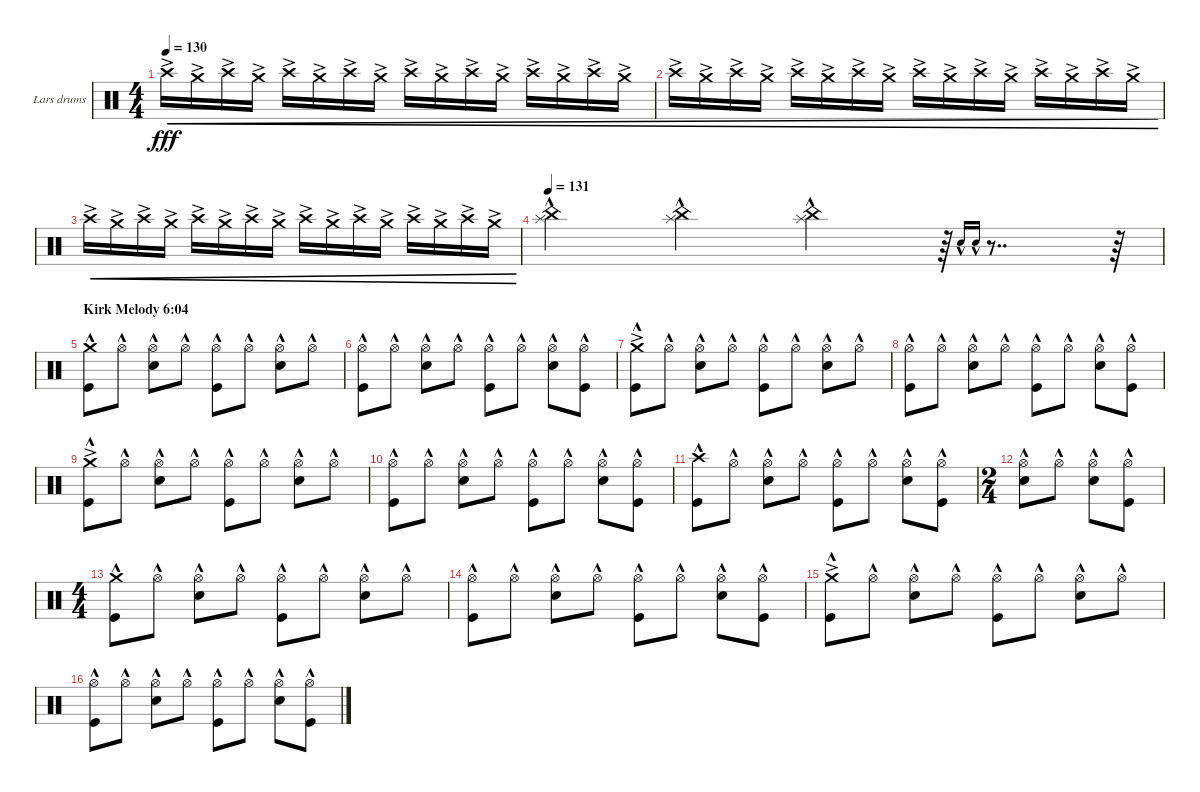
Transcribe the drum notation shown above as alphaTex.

\defaultSystemsLayout 4
\bracketExtendMode groupsimilarinstruments
\firstSystemTrackNameOrientation horizontal
\otherSystemsTrackNameOrientation horizontal
\track ("Lars drums" "Lars drums") {instrument percussion}
\staff {score}
\articulation defaults
\ts (4 4)
\tempo 130
\clef neutral
\ks c "Crash high (hit)"{ac}.16{cre dy fff} "Crash medium (hit)"{ac}.16{cre} "Crash high (hit)"{ac}.16{cre} "Crash medium (hit)"{ac}.16{cre} "Crash high (hit)"{ac}.16{cre} "Crash medium (hit)"{ac}.16{cre} "Crash high (hit)"{ac}.16{cre} "Crash medium (hit)"{ac}.16{cre} "Crash high (hit)"{ac}.16{cre} "Crash medium (hit)"{ac}.16{cre} "Crash high (hit)"{ac}.16{cre} "Crash medium (hit)"{ac}.16{cre} "Crash high (hit)"{ac}.16{cre} "Crash medium (hit)"{ac}.16{cre} "Crash high (hit)"{ac}.16{cre} "Crash medium (hit)"{ac}.16{cre}
|
"Crash high (hit)"{ac}.16{cre} "Crash medium (hit)"{ac}.16{cre} "Crash high (hit)"{ac}.16{cre} "Crash medium (hit)"{ac}.16{cre} "Crash high (hit)"{ac}.16{cre} "Crash medium (hit)"{ac}.16{cre} "Crash high (hit)"{ac}.16{cre} "Crash medium (hit)"{ac}.16{cre} "Crash high (hit)"{ac}.16{cre} "Crash medium (hit)"{ac}.16{cre} "Crash high (hit)"{ac}.16{cre} "Crash medium (hit)"{ac}.16{cre} "Crash high (hit)"{ac}.16{cre} "Crash medium (hit)"{ac}.16{cre} "Crash high (hit)"{ac}.16{cre} "Crash medium (hit)"{ac}.16{cre} |
"Crash high (hit)"{ac}.16{cre} "Crash medium (hit)"{ac}.16{cre} "Crash high (hit)"{ac}.16{cre} "Crash medium (hit)"{ac}.16{cre} "Crash high (hit)"{ac}.16{cre} "Crash medium (hit)"{ac}.16{cre} "Crash high (hit)"{ac}.16{cre} "Crash medium (hit)"{ac}.16{cre} "Crash high (hit)"{ac}.16{cre} "Crash medium (hit)"{ac}.16{cre} "Crash high (hit)"{ac}.16{cre} "Crash medium (hit)"{ac}.16{cre} "Crash high (hit)"{ac}.16{cre} "Crash medium (hit)"{ac}.16{cre} "Crash high (hit)"{ac}.16{cre} "Crash medium (hit)"{ac}.16{cre} |
\tempo 131
("Splash (hit)"{hac} "China (hit)"{hac}).4 ("Splash (hit)"{hac} "China (hit)"{hac}).4 ("Splash (hit)"{hac} "China (hit)"{hac}).4 r.64 "Snare (hit) 2"{hac}.16{gr onbeat} "Snare (hit) 2"{hac}.16{gr onbeat} r.8{dd} r.64 |
\section ("" "Kirk Melody 6:04")
("Crash medium (hit)"{hac} "Kick (hit)"{hac}).8 "Hi-Hat (open)"{hac}.8 ("Hi-Hat (open)"{hac} "Snare (hit) 2"{hac}).8 "Hi-Hat (open)"{hac}.8 ("Hi-Hat (open)"{hac} "Kick (hit)"{hac}).8 "Hi-Hat (open)"{hac}.8 ("Hi-Hat (open)"{hac} "Snare (hit) 2"{hac}).8 "Hi-Hat (open)"{hac}.8 |
("Hi-Hat (open)"{hac} "Kick (hit)"{hac}).8 "Hi-Hat (open)"{hac}.8 ("Hi-Hat (open)"{hac} "Snare (hit) 2"{hac}).8 "Hi-Hat (open)"{hac}.8 ("Hi-Hat (open)"{hac} "Kick (hit)"{hac}).8 "Hi-Hat (open)"{hac}.8 ("Hi-Hat (open)"{hac} "Snare (hit) 2"{hac}).8 ("Hi-Hat (open)"{hac} "Kick (hit)"{hac}).8 |
("Crash medium (hit)"{ac} "Kick (hit)"{hac}).8 "Hi-Hat (open)"{hac}.8 ("Hi-Hat (open)"{hac} "Snare (hit) 2"{hac}).8 "Hi-Hat (open)"{hac}.8 ("Hi-Hat (open)"{hac} "Kick (hit)"{hac}).8 "Hi-Hat (open)"{hac}.8 ("Hi-Hat (open)"{hac} "Snare (hit) 2"{hac}).8 "Hi-Hat (open)"{hac}.8 |
("Hi-Hat (open)"{hac} "Kick (hit)"{hac}).8 "Hi-Hat (open)"{hac}.8 ("Hi-Hat (open)"{hac} "Snare (hit) 2"{hac}).8 "Hi-Hat (open)"{hac}.8 ("Hi-Hat (open)"{hac} "Kick (hit)"{hac}).8 "Hi-Hat (open)"{hac}.8 ("Hi-Hat (open)"{hac} "Snare (hit) 2"{hac}).8 ("Hi-Hat (open)"{hac} "Kick (hit)"{hac}).8 |
("Crash medium (hit)"{ac} "Kick (hit)"{hac}).8 "Hi-Hat (open)"{hac}.8 ("Hi-Hat (open)"{hac} "Snare (hit) 2"{hac}).8 "Hi-Hat (open)"{hac}.8 ("Hi-Hat (open)"{hac} "Kick (hit)"{hac}).8 "Hi-Hat (open)"{hac}.8 ("Hi-Hat (open)"{hac} "Snare (hit) 2"{hac}).8 "Hi-Hat (open)"{hac}.8 |
("Hi-Hat (open)"{hac} "Kick (hit)"{hac}).8 "Hi-Hat (open)"{hac}.8 ("Hi-Hat (open)"{hac} "Snare (hit) 2"{hac}).8 "Hi-Hat (open)"{hac}.8 ("Hi-Hat (open)"{hac} "Kick (hit)"{hac}).8 "Hi-Hat (open)"{hac}.8 ("Hi-Hat (open)"{hac} "Snare (hit) 2"{hac}).8 ("Hi-Hat (open)"{hac} "Kick (hit)"{hac}).8 |
("Crash high (hit)"{hac} "Kick (hit)"{hac}).8 "Hi-Hat (open)"{hac}.8 ("Hi-Hat (open)"{hac} "Snare (hit) 2"{hac}).8 "Hi-Hat (open)"{hac}.8 ("Hi-Hat (open)"{hac} "Kick (hit)"{hac}).8 "Hi-Hat (open)"{hac}.8 ("Hi-Hat (open)"{hac} "Snare (hit) 2"{hac}).8 ("Hi-Hat (open)"{hac} "Kick (hit)"{hac}).8 |
\ts (2 4)
("Hi-Hat (open)"{hac} "Snare (hit) 2"{hac}).8 "Hi-Hat (open)"{hac}.8 ("Hi-Hat (open)"{hac} "Snare (hit) 2"{hac}).8 ("Hi-Hat (open)"{hac} "Kick (hit)"{hac}).8 |
\ts (4 4)
("Crash medium (hit)"{hac} "Kick (hit)"{hac}).8 "Hi-Hat (open)"{hac}.8 ("Hi-Hat (open)"{hac} "Snare (hit) 2"{hac}).8 "Hi-Hat (open)"{hac}.8 ("Hi-Hat (open)"{hac} "Kick (hit)"{hac}).8 "Hi-Hat (open)"{hac}.8 ("Hi-Hat (open)"{hac} "Snare (hit) 2"{hac}).8 "Hi-Hat (open)"{hac}.8 |
("Hi-Hat (open)"{hac} "Kick (hit)"{hac}).8 "Hi-Hat (open)"{hac}.8 ("Hi-Hat (open)"{hac} "Snare (hit) 2"{hac}).8 "Hi-Hat (open)"{hac}.8 ("Hi-Hat (open)"{hac} "Kick (hit)"{hac}).8 "Hi-Hat (open)"{hac}.8 ("Hi-Hat (open)"{hac} "Snare (hit) 2"{hac}).8 ("Hi-Hat (open)"{hac} "Kick (hit)"{hac}).8 |
("Crash medium (hit)"{ac} "Kick (hit)"{hac}).8 "Hi-Hat (open)"{hac}.8 ("Hi-Hat (open)"{hac} "Snare (hit) 2"{hac}).8 "Hi-Hat (open)"{hac}.8 ("Hi-Hat (open)"{hac} "Kick (hit)"{hac}).8 "Hi-Hat (open)"{hac}.8 ("Hi-Hat (open)"{hac} "Snare (hit) 2"{hac}).8 "Hi-Hat (open)"{hac}.8 |
("Hi-Hat (open)"{hac} "Kick (hit)"{hac}).8 "Hi-Hat (open)"{hac}.8 ("Hi-Hat (open)"{hac} "Snare (hit) 2"{hac}).8 "Hi-Hat (open)"{hac}.8 ("Hi-Hat (open)"{hac} "Kick (hit)"{hac}).8 "Hi-Hat (open)"{hac}.8 ("Hi-Hat (open)"{hac} "Snare (hit) 2"{hac}).8 ("Hi-Hat (open)"{hac} "Kick (hit)"{hac}).8
